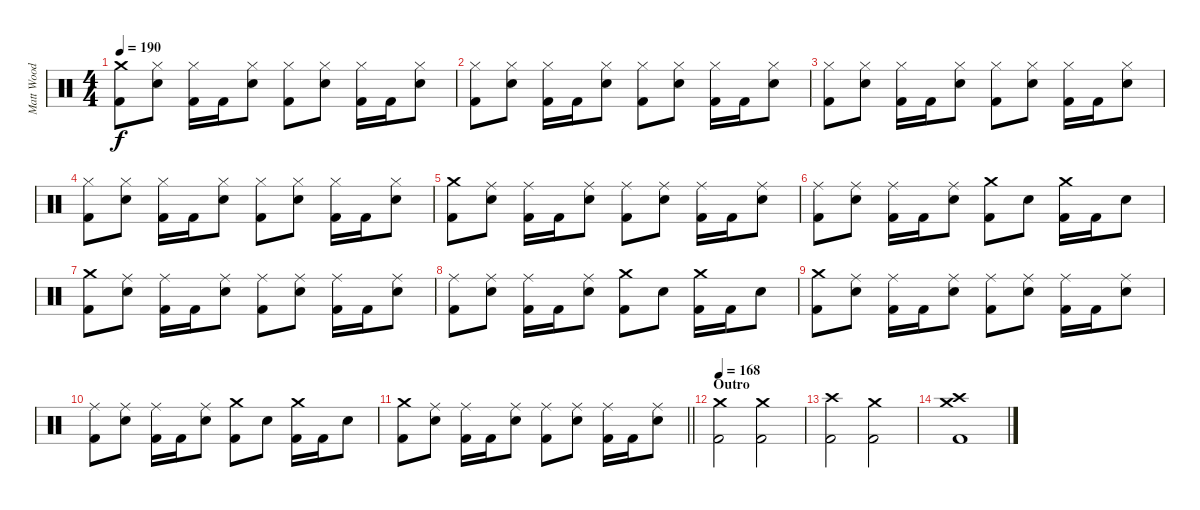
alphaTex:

\track ("Matt Wood" "Matt Wood") {instrument percussion}
\staff {score}
\articulation defaults
\ts (4 4)
\tempo 190
\clef neutral
\ks c
("Crash medium (hit)" "Kick (hit) 2").8{dy f} ("Hi-Hat (closed)" "Snare (hit) 2").8 ("Hi-Hat (closed)" "Kick (hit) 2").16 "Kick (hit) 2".16 ("Hi-Hat (closed)" "Snare (hit) 2").8 ("Hi-Hat (closed)" "Kick (hit) 2").8 ("Hi-Hat (closed)" "Snare (hit) 2").8 ("Hi-Hat (closed)" "Kick (hit) 2").16 "Kick (hit) 2".16 ("Hi-Hat (closed)" "Snare (hit) 2").8 |
("Hi-Hat (closed)" "Kick (hit) 2").8 ("Hi-Hat (closed)" "Snare (hit) 2").8 ("Hi-Hat (closed)" "Kick (hit) 2").16 "Kick (hit) 2".16 ("Hi-Hat (closed)" "Snare (hit) 2").8 ("Hi-Hat (closed)" "Kick (hit) 2").8 ("Hi-Hat (closed)" "Snare (hit) 2").8 ("Hi-Hat (closed)" "Kick (hit) 2").16 "Kick (hit) 2".16 ("Hi-Hat (closed)" "Snare (hit) 2").8 |
("Hi-Hat (closed)" "Kick (hit) 2").8 ("Hi-Hat (closed)" "Snare (hit) 2").8 ("Hi-Hat (closed)" "Kick (hit) 2").16 "Kick (hit) 2".16 ("Hi-Hat (closed)" "Snare (hit) 2").8 ("Hi-Hat (closed)" "Kick (hit) 2").8 ("Hi-Hat (closed)" "Snare (hit) 2").8 ("Hi-Hat (closed)" "Kick (hit) 2").16 "Kick (hit) 2".16 ("Hi-Hat (closed)" "Snare (hit) 2").8 |
("Hi-Hat (closed)" "Kick (hit) 2").8 ("Hi-Hat (closed)" "Snare (hit) 2").8 ("Hi-Hat (closed)" "Kick (hit) 2").16 "Kick (hit) 2".16 ("Hi-Hat (closed)" "Snare (hit) 2").8 ("Hi-Hat (closed)" "Kick (hit) 2").8 ("Hi-Hat (closed)" "Snare (hit) 2").8 ("Hi-Hat (closed)" "Kick (hit) 2").16 "Kick (hit) 2".16 ("Hi-Hat (closed)" "Snare (hit) 2").8 |
("Crash medium (hit)" "Kick (hit) 2").8 ("Ride (middle)" "Snare (hit) 2").8 ("Ride (middle)" "Kick (hit) 2").16 "Kick (hit) 2".16 ("Ride (middle)" "Snare (hit) 2").8 ("Ride (middle)" "Kick (hit) 2").8 ("Ride (middle)" "Snare (hit) 2").8 ("Ride (middle)" "Kick (hit) 2").16 "Kick (hit) 2".16 ("Ride (middle)" "Snare (hit) 2").8 |
("Ride (middle)" "Kick (hit) 2").8 ("Ride (middle)" "Snare (hit) 2").8 ("Ride (middle)" "Kick (hit) 2").16 "Kick (hit) 2".16 ("Ride (middle)" "Snare (hit) 2").8 ("Crash medium (hit)" "Kick (hit) 2").8 "Snare (hit) 2".8 ("Crash medium (hit)" "Kick (hit) 2").16 "Kick (hit) 2".16 "Snare (hit) 2".8 |
("Crash medium (hit)" "Kick (hit) 2").8 ("Ride (middle)" "Snare (hit) 2").8 ("Ride (middle)" "Kick (hit) 2").16 "Kick (hit) 2".16 ("Ride (middle)" "Snare (hit) 2").8 ("Ride (middle)" "Kick (hit) 2").8 ("Ride (middle)" "Snare (hit) 2").8 ("Ride (middle)" "Kick (hit) 2").16 "Kick (hit) 2".16 ("Ride (middle)" "Snare (hit) 2").8 |
("Ride (middle)" "Kick (hit) 2").8 ("Ride (middle)" "Snare (hit) 2").8 ("Ride (middle)" "Kick (hit) 2").16 "Kick (hit) 2".16 ("Ride (middle)" "Snare (hit) 2").8 ("Crash medium (hit)" "Kick (hit) 2").8 "Snare (hit) 2".8 ("Crash medium (hit)" "Kick (hit) 2").16 "Kick (hit) 2".16 "Snare (hit) 2".8 |
("Crash medium (hit)" "Kick (hit) 2").8 ("Ride (middle)" "Snare (hit) 2").8 ("Ride (middle)" "Kick (hit) 2").16 "Kick (hit) 2".16 ("Ride (middle)" "Snare (hit) 2").8 ("Ride (middle)" "Kick (hit) 2").8 ("Ride (middle)" "Snare (hit) 2").8 ("Ride (middle)" "Kick (hit) 2").16 "Kick (hit) 2".16 ("Ride (middle)" "Snare (hit) 2").8 |
("Ride (middle)" "Kick (hit) 2").8 ("Ride (middle)" "Snare (hit) 2").8 ("Ride (middle)" "Kick (hit) 2").16 "Kick (hit) 2".16 ("Ride (middle)" "Snare (hit) 2").8 ("Crash medium (hit)" "Kick (hit) 2").8 "Snare (hit) 2".8 ("Crash medium (hit)" "Kick (hit) 2").16 "Kick (hit) 2".16 "Snare (hit) 2".8 |
\barLineRight lightlight
("Crash medium (hit)" "Kick (hit) 2").8 ("Ride (middle)" "Snare (hit) 2").8 ("Ride (middle)" "Kick (hit) 2").16 "Kick (hit) 2".16 ("Ride (middle)" "Snare (hit) 2").8 ("Ride (middle)" "Kick (hit) 2").8 ("Ride (middle)" "Snare (hit) 2").8 ("Ride (middle)" "Kick (hit) 2").16 "Kick (hit) 2".16 ("Ride (middle)" "Snare (hit) 2").8 |
\section ("" "Outro")
\tempo 168
("Crash medium (hit)" "Kick (hit) 2").2 ("Crash medium (hit)" "Kick (hit) 2").2 |
("Crash high (hit)" "Kick (hit) 2").2 ("Crash medium (hit)" "Kick (hit) 2").2 |
("Crash medium (hit)" "Crash high (hit)" "Kick (hit) 2").1
